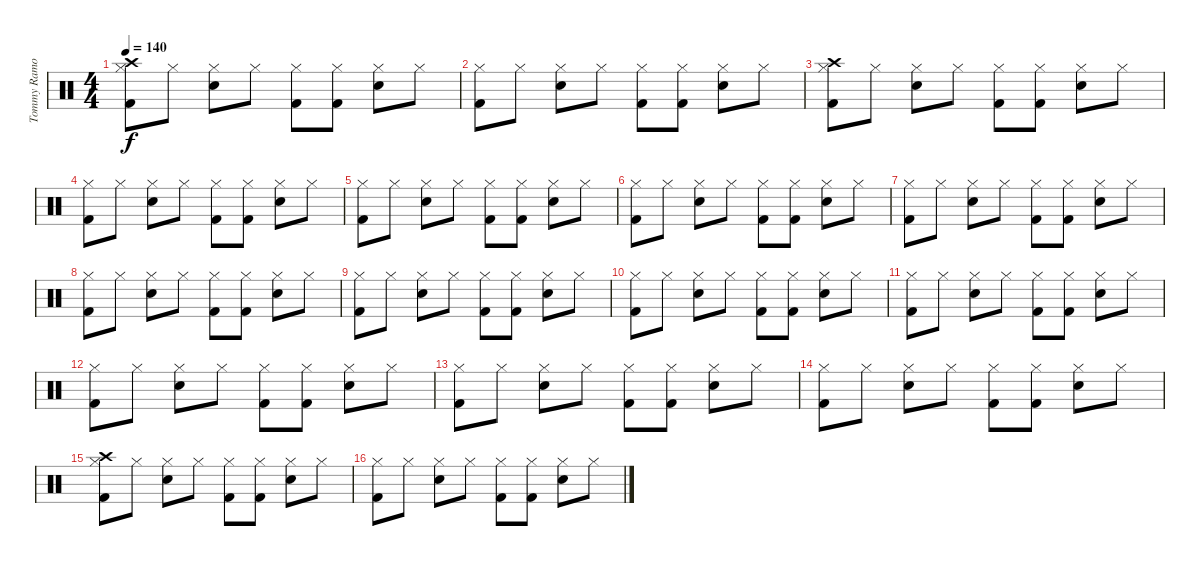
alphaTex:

\track ("Tommy Ramone" "Tommy Ramo") {instrument percussion}
\staff {score}
\articulation defaults
\ts (4 4)
\tempo 140
\clef neutral
\ks c
("Hi-Hat (closed)" "Kick (hit) 2" "Crash high (hit)").8{dy f} "Hi-Hat (closed)".8 ("Hi-Hat (closed)" "Electric Snare (hit)").8 "Hi-Hat (closed)".8 ("Hi-Hat (closed)" "Kick (hit) 2").8 ("Hi-Hat (closed)" "Kick (hit) 2").8 ("Hi-Hat (closed)" "Electric Snare (hit)").8 "Hi-Hat (closed)".8 |
("Hi-Hat (closed)" "Kick (hit) 2").8 "Hi-Hat (closed)".8 ("Hi-Hat (closed)" "Electric Snare (hit)").8 "Hi-Hat (closed)".8 ("Hi-Hat (closed)" "Kick (hit) 2").8 ("Hi-Hat (closed)" "Kick (hit) 2").8 ("Hi-Hat (closed)" "Electric Snare (hit)").8 "Hi-Hat (closed)".8 |
("Hi-Hat (closed)" "Kick (hit) 2" "Crash high (hit)").8 "Hi-Hat (closed)".8 ("Hi-Hat (closed)" "Electric Snare (hit)").8 "Hi-Hat (closed)".8 ("Hi-Hat (closed)" "Kick (hit) 2").8 ("Hi-Hat (closed)" "Kick (hit) 2").8 ("Hi-Hat (closed)" "Electric Snare (hit)").8 "Hi-Hat (closed)".8 |
("Hi-Hat (closed)" "Kick (hit) 2").8 "Hi-Hat (closed)".8 ("Hi-Hat (closed)" "Electric Snare (hit)").8 "Hi-Hat (closed)".8 ("Hi-Hat (closed)" "Kick (hit) 2").8 ("Hi-Hat (closed)" "Kick (hit) 2").8 ("Hi-Hat (closed)" "Electric Snare (hit)").8 "Hi-Hat (closed)".8 |
("Hi-Hat (closed)" "Kick (hit) 2").8 "Hi-Hat (closed)".8 ("Hi-Hat (closed)" "Electric Snare (hit)").8 "Hi-Hat (closed)".8 ("Hi-Hat (closed)" "Kick (hit) 2").8 ("Hi-Hat (closed)" "Kick (hit) 2").8 ("Hi-Hat (closed)" "Electric Snare (hit)").8 "Hi-Hat (closed)".8 |
("Hi-Hat (closed)" "Kick (hit) 2").8 "Hi-Hat (closed)".8 ("Hi-Hat (closed)" "Electric Snare (hit)").8 "Hi-Hat (closed)".8 ("Hi-Hat (closed)" "Kick (hit) 2").8 ("Hi-Hat (closed)" "Kick (hit) 2").8 ("Hi-Hat (closed)" "Electric Snare (hit)").8 "Hi-Hat (closed)".8 |
("Hi-Hat (closed)" "Kick (hit) 2").8 "Hi-Hat (closed)".8 ("Hi-Hat (closed)" "Electric Snare (hit)").8 "Hi-Hat (closed)".8 ("Hi-Hat (closed)" "Kick (hit) 2").8 ("Hi-Hat (closed)" "Kick (hit) 2").8 ("Hi-Hat (closed)" "Electric Snare (hit)").8 "Hi-Hat (closed)".8 |
("Hi-Hat (closed)" "Kick (hit) 2").8 "Hi-Hat (closed)".8 ("Hi-Hat (closed)" "Electric Snare (hit)").8 "Hi-Hat (closed)".8 ("Hi-Hat (closed)" "Kick (hit) 2").8 ("Hi-Hat (closed)" "Kick (hit) 2").8 ("Hi-Hat (closed)" "Electric Snare (hit)").8 "Hi-Hat (closed)".8 |
("Hi-Hat (closed)" "Kick (hit) 2").8 "Hi-Hat (closed)".8 ("Hi-Hat (closed)" "Electric Snare (hit)").8 "Hi-Hat (closed)".8 ("Hi-Hat (closed)" "Kick (hit) 2").8 ("Hi-Hat (closed)" "Kick (hit) 2").8 ("Hi-Hat (closed)" "Electric Snare (hit)").8 "Hi-Hat (closed)".8 |
("Hi-Hat (closed)" "Kick (hit) 2").8 "Hi-Hat (closed)".8 ("Hi-Hat (closed)" "Electric Snare (hit)").8 "Hi-Hat (closed)".8 ("Hi-Hat (closed)" "Kick (hit) 2").8 ("Hi-Hat (closed)" "Kick (hit) 2").8 ("Hi-Hat (closed)" "Electric Snare (hit)").8 "Hi-Hat (closed)".8 |
("Hi-Hat (closed)" "Kick (hit) 2").8 "Hi-Hat (closed)".8 ("Hi-Hat (closed)" "Electric Snare (hit)").8 "Hi-Hat (closed)".8 ("Hi-Hat (closed)" "Kick (hit) 2").8 ("Hi-Hat (closed)" "Kick (hit) 2").8 ("Hi-Hat (closed)" "Electric Snare (hit)").8 "Hi-Hat (closed)".8 |
("Hi-Hat (closed)" "Kick (hit) 2").8 "Hi-Hat (closed)".8 ("Hi-Hat (closed)" "Electric Snare (hit)").8 "Hi-Hat (closed)".8 ("Hi-Hat (closed)" "Kick (hit) 2").8 ("Hi-Hat (closed)" "Kick (hit) 2").8 ("Hi-Hat (closed)" "Electric Snare (hit)").8 "Hi-Hat (closed)".8 |
("Hi-Hat (closed)" "Kick (hit) 2").8 "Hi-Hat (closed)".8 ("Hi-Hat (closed)" "Electric Snare (hit)").8 "Hi-Hat (closed)".8 ("Hi-Hat (closed)" "Kick (hit) 2").8 ("Hi-Hat (closed)" "Kick (hit) 2").8 ("Hi-Hat (closed)" "Electric Snare (hit)").8 "Hi-Hat (closed)".8 |
("Hi-Hat (closed)" "Kick (hit) 2").8 "Hi-Hat (closed)".8 ("Hi-Hat (closed)" "Electric Snare (hit)").8 "Hi-Hat (closed)".8 ("Hi-Hat (closed)" "Kick (hit) 2").8 ("Hi-Hat (closed)" "Kick (hit) 2").8 ("Hi-Hat (closed)" "Electric Snare (hit)").8 "Hi-Hat (closed)".8 |
("Hi-Hat (closed)" "Kick (hit) 2" "Crash high (hit)").8 "Hi-Hat (closed)".8 ("Hi-Hat (closed)" "Electric Snare (hit)").8 "Hi-Hat (closed)".8 ("Hi-Hat (closed)" "Kick (hit) 2").8 ("Hi-Hat (closed)" "Kick (hit) 2").8 ("Hi-Hat (closed)" "Electric Snare (hit)").8 "Hi-Hat (closed)".8 |
("Hi-Hat (closed)" "Kick (hit) 2").8 "Hi-Hat (closed)".8 ("Hi-Hat (closed)" "Electric Snare (hit)").8 "Hi-Hat (closed)".8 ("Hi-Hat (closed)" "Kick (hit) 2").8 ("Hi-Hat (closed)" "Kick (hit) 2").8 ("Hi-Hat (closed)" "Electric Snare (hit)").8 "Hi-Hat (closed)".8
